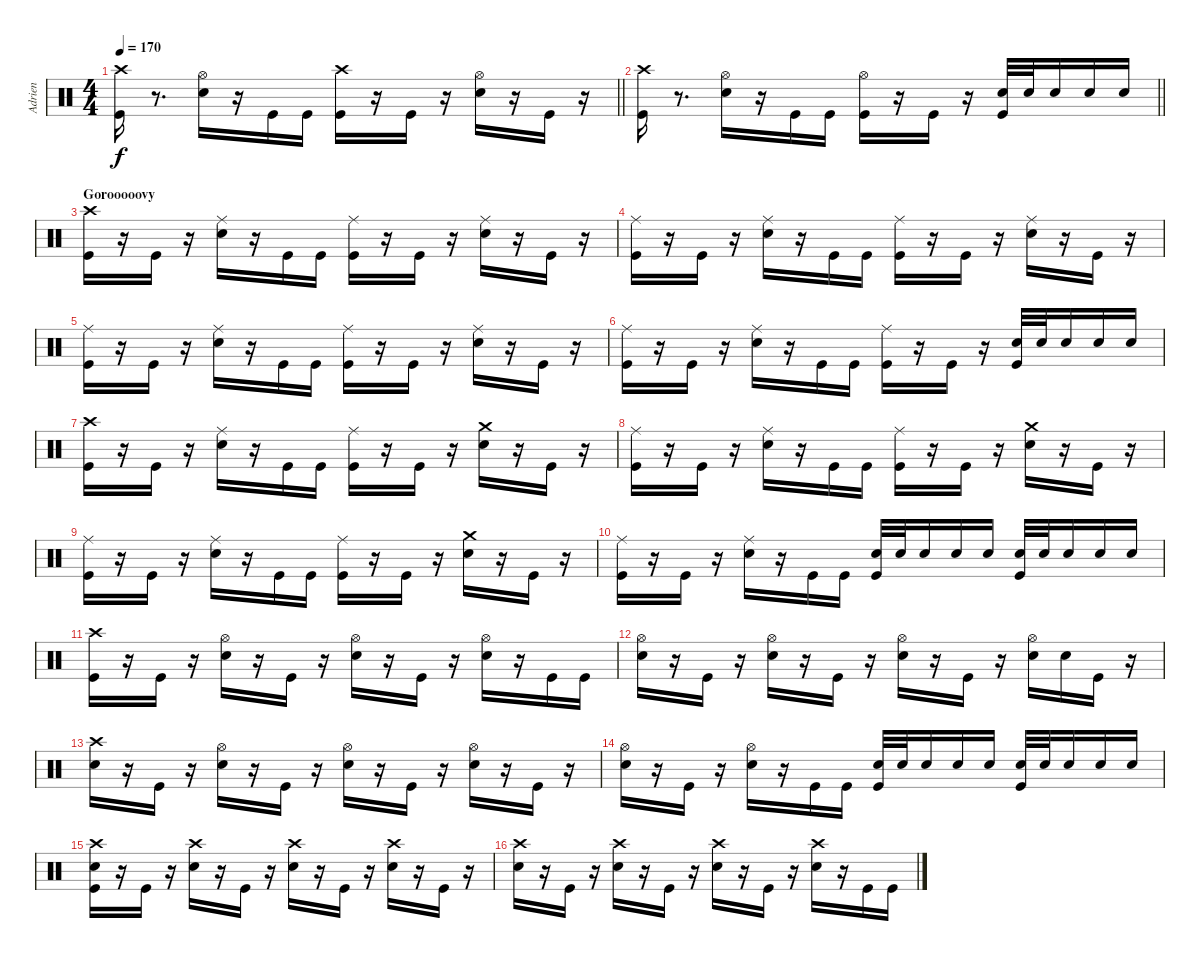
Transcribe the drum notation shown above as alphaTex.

\track ("Adrien" "Adrien") {instrument percussion}
\staff {score}
\articulation defaults
\ts (4 4)
\tempo 170
\clef neutral
\barLineRight lightlight
\ks c
("Crash high (hit)" "Kick (hit)").16{dy f} r.8{d} ("Hi-Hat (open)" "Electric Snare (hit)").16 r.16 "Kick (hit)".16 "Kick (hit)".16 ("Crash high (hit)" "Kick (hit)").16 r.16 "Kick (hit)".16 r.16 ("Hi-Hat (open)" "Electric Snare (hit)").16 r.16 "Kick (hit)".16 r.16 |
\barLineRight lightlight
("Crash high (hit)" "Kick (hit)").16 r.8{d} ("Hi-Hat (open)" "Electric Snare (hit)").16 r.16 "Kick (hit)".16 "Kick (hit)".16 ("Hi-Hat (open)" "Kick (hit)").16 r.16 "Kick (hit)".16 r.16 ("Kick (hit)" "Electric Snare (hit)").32 "Electric Snare (hit)".32 "Electric Snare (hit)".16 "Electric Snare (hit)".16 "Electric Snare (hit)".16 |
\section ("" "Gorooooovy")
("Crash high (hit)" "Kick (hit)").16 r.16 "Kick (hit)".16 r.16 ("Ride (middle)" "Electric Snare (hit)").16 r.16 "Kick (hit)".16 "Kick (hit)".16 ("Ride (middle)" "Kick (hit)").16 r.16 "Kick (hit)".16 r.16 ("Ride (middle)" "Electric Snare (hit)").16 r.16 "Kick (hit)".16 r.16 |
("Ride (middle)" "Kick (hit)").16 r.16 "Kick (hit)".16 r.16 ("Ride (middle)" "Electric Snare (hit)").16 r.16 "Kick (hit)".16 "Kick (hit)".16 ("Ride (middle)" "Kick (hit)").16 r.16 "Kick (hit)".16 r.16 ("Ride (middle)" "Electric Snare (hit)").16 r.16 "Kick (hit)".16 r.16 |
("Ride (middle)" "Kick (hit)").16 r.16 "Kick (hit)".16 r.16 ("Ride (middle)" "Electric Snare (hit)").16 r.16 "Kick (hit)".16 "Kick (hit)".16 ("Ride (middle)" "Kick (hit)").16 r.16 "Kick (hit)".16 r.16 ("Ride (middle)" "Electric Snare (hit)").16 r.16 "Kick (hit)".16 r.16 |
("Ride (middle)" "Kick (hit)").16 r.16 "Kick (hit)".16 r.16 ("Ride (middle)" "Electric Snare (hit)").16 r.16 "Kick (hit)".16 "Kick (hit)".16 ("Ride (middle)" "Kick (hit)").16 r.16 "Kick (hit)".16 r.16 ("Kick (hit)" "Electric Snare (hit)").32 "Electric Snare (hit)".32 "Electric Snare (hit)".16 "Electric Snare (hit)".16 "Electric Snare (hit)".16 |
("Crash high (hit)" "Kick (hit)").16 r.16 "Kick (hit)".16 r.16 ("Ride (middle)" "Electric Snare (hit)").16 r.16 "Kick (hit)".16 "Kick (hit)".16 ("Ride (middle)" "Kick (hit)").16 r.16 "Kick (hit)".16 r.16 ("Crash medium (hit)" "Electric Snare (hit)").16 r.16 "Kick (hit)".16 r.16 |
("Ride (middle)" "Kick (hit)").16 r.16 "Kick (hit)".16 r.16 ("Ride (middle)" "Electric Snare (hit)").16 r.16 "Kick (hit)".16 "Kick (hit)".16 ("Ride (middle)" "Kick (hit)").16 r.16 "Kick (hit)".16 r.16 ("Crash medium (hit)" "Electric Snare (hit)").16 r.16 "Kick (hit)".16 r.16 |
("Ride (middle)" "Kick (hit)").16 r.16 "Kick (hit)".16 r.16 ("Ride (middle)" "Electric Snare (hit)").16 r.16 "Kick (hit)".16 "Kick (hit)".16 ("Ride (middle)" "Kick (hit)").16 r.16 "Kick (hit)".16 r.16 ("Crash medium (hit)" "Electric Snare (hit)").16 r.16 "Kick (hit)".16 r.16 |
("Ride (middle)" "Kick (hit)").16 r.16 "Kick (hit)".16 r.16 ("Ride (middle)" "Electric Snare (hit)").16 r.16 "Kick (hit)".16 "Kick (hit)".16 ("Electric Snare (hit)" "Kick (hit)").32 "Electric Snare (hit)".32 "Electric Snare (hit)".16 "Electric Snare (hit)".16 "Electric Snare (hit)".16 ("Kick (hit)" "Electric Snare (hit)").32 "Electric Snare (hit)".32 "Electric Snare (hit)".16 "Electric Snare (hit)".16 "Electric Snare (hit)".16 |
("Crash high (hit)" "Kick (hit)").16 r.16 "Kick (hit)".16 r.16 ("Hi-Hat (open)" "Electric Snare (hit)").16 r.16 "Kick (hit)".16 r.16 ("Electric Snare (hit)" "Hi-Hat (open)").16 r.16 "Kick (hit)".16 r.16 ("Hi-Hat (open)" "Electric Snare (hit)").16 r.16 "Kick (hit)".16 "Kick (hit)".16 |
("Electric Snare (hit)" "Hi-Hat (open)").16 r.16 "Kick (hit)".16 r.16 ("Hi-Hat (open)" "Electric Snare (hit)").16 r.16 "Kick (hit)".16 r.16 ("Electric Snare (hit)" "Hi-Hat (open)").16 r.16 "Kick (hit)".16 r.16 ("Hi-Hat (open)" "Electric Snare (hit)").16 "Electric Snare (hit)".16 "Kick (hit)".16 r.16 |
("Crash high (hit)" "Electric Snare (hit)").16 r.16 "Kick (hit)".16 r.16 ("Hi-Hat (open)" "Electric Snare (hit)").16 r.16 "Kick (hit)".16 r.16 ("Electric Snare (hit)" "Hi-Hat (open)").16 r.16 "Kick (hit)".16 r.16 ("Hi-Hat (open)" "Electric Snare (hit)").16 r.16 "Kick (hit)".16 r.16 |
("Electric Snare (hit)" "Hi-Hat (open)").16 r.16 "Kick (hit)".16 r.16 ("Hi-Hat (open)" "Electric Snare (hit)").16 r.16 "Kick (hit)".16 "Kick (hit)".16 ("Electric Snare (hit)" "Kick (hit)").32 "Electric Snare (hit)".32 "Electric Snare (hit)".16 "Electric Snare (hit)".16 "Electric Snare (hit)".16 ("Kick (hit)" "Electric Snare (hit)").32 "Electric Snare (hit)".32 "Electric Snare (hit)".16 "Electric Snare (hit)".16 "Electric Snare (hit)".16 |
("Electric Snare (hit)" "Crash high (hit)" "Kick (hit)").16 r.16 "Kick (hit)".16 r.16 ("Crash high (hit)" "Electric Snare (hit)").16 r.16 "Kick (hit)".16 r.16 ("Electric Snare (hit)" "Crash high (hit)").16 r.16 "Kick (hit)".16 r.16 ("Crash high (hit)" "Electric Snare (hit)").16 r.16 "Kick (hit)".16 r.16 |
("Crash high (hit)" "Electric Snare (hit)").16 r.16 "Kick (hit)".16 r.16 ("Crash high (hit)" "Electric Snare (hit)").16 r.16 "Kick (hit)".16 r.16 ("Electric Snare (hit)" "Crash high (hit)").16 r.16 "Kick (hit)".16 r.16 ("Crash high (hit)" "Electric Snare (hit)").16 r.16 "Kick (hit)".16 "Kick (hit)".16
